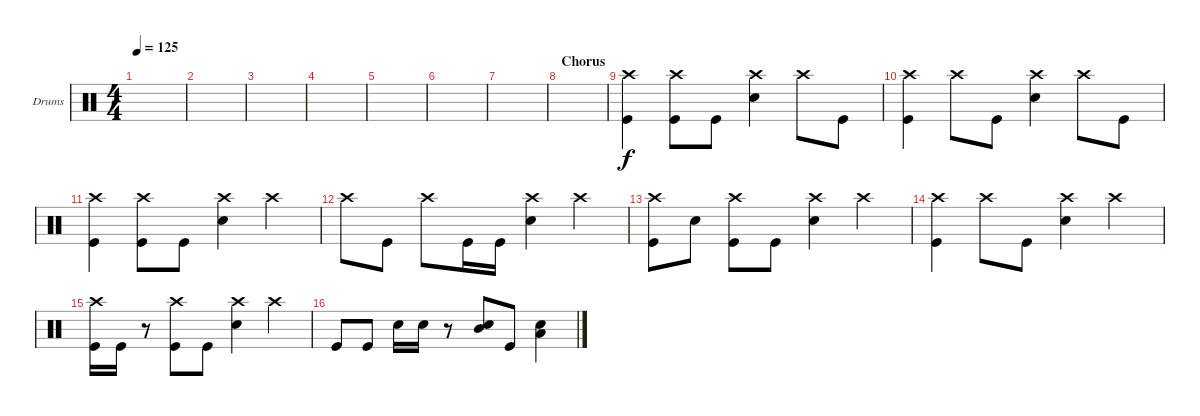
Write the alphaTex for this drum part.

\defaultSystemsLayout 4
\bracketExtendMode groupsimilarinstruments
\firstSystemTrackNameOrientation horizontal
\otherSystemsTrackNameOrientation horizontal
\track ("Drumkit" "Drums") {instrument percussion}
\staff {score}
\articulation defaults
\ts (4 4)
\tempo 125
\clef neutral
\scale
0.333333
\ks c
|
\scale
0.333333 |
\scale
0.333333 |
\scale
0.333333 |
\scale
0.333333 |
\scale
0.333333 |
\scale
0.333333 |
\section ("" "Chorus")
\scale
0.333333 |
\scale
0.333333 ("Kick (hit)" "Crash high (hit)").4 ("Kick (hit)" "Crash high (hit)").8 "Kick (hit)".8 ("Snare (hit) 2" "Crash high (hit)").4 "Crash high (hit)".8 "Kick (hit)".8 |
\scale
0.333333 ("Crash high (hit)" "Kick (hit)").4 "Crash high (hit)".8 "Kick (hit)".8 ("Snare (hit) 2" "Crash high (hit)").4 "Crash high (hit)".8 "Kick (hit)".8 |
\scale
0.333333 ("Crash high (hit)" "Kick (hit)").4 ("Kick (hit)" "Crash high (hit)").8 "Kick (hit)".8 ("Snare (hit) 2" "Crash high (hit)").4 "Crash high (hit)".4 |
\scale
0.333333 "Crash high (hit)".8 "Kick (hit)".8 "Crash high (hit)".8 "Kick (hit)".16 "Kick (hit)".16 ("Snare (hit) 2" "Crash high (hit)").4 "Crash high (hit)".4 |
\scale
0.333333 ("Kick (hit)" "Crash high (hit)").8 "Snare (hit) 2".8 ("Kick (hit)" "Crash high (hit)").8 "Kick (hit)".8 ("Snare (hit) 2" "Crash high (hit)").4 "Crash high (hit)".4 |
\scale
0.333333 ("Crash high (hit)" "Kick (hit)").4 "Crash high (hit)".8 "Kick (hit)".8 ("Snare (hit) 2" "Crash high (hit)").4 "Crash high (hit)".4 |
\scale
0.333333 ("Crash high (hit)" "Kick (hit)").16 "Kick (hit)".16 r.8 ("Kick (hit)" "Crash high (hit)").8 "Kick (hit)".8 ("Snare (hit) 2" "Crash high (hit)").4 "Crash high (hit)".4 |
\scale
0.333333 "Kick (hit)".8 "Kick (hit)".8 "Snare (hit) 2".16 "Snare (hit) 2".16 r.8 ("Snare (hit) 2" "Mid Tom (hit)").8 "Kick (hit)".8 ("Snare (hit) 2" "Low Tom (hit)").4
